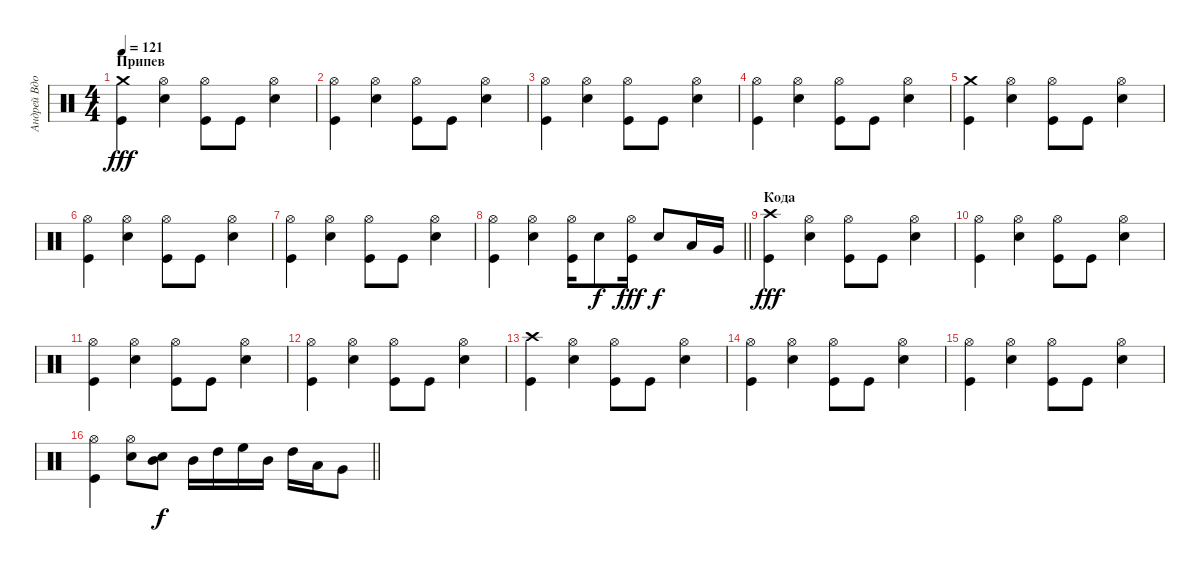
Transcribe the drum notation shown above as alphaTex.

\track ("Андрей Вдовиченко" "Андрей Вдо") {instrument percussion}
\staff {score}
\articulation defaults
\ts (4 4)
\section ("" "Припев")
\tempo 121
\clef neutral
\ks c
("Crash medium (hit)" "Kick (hit)").4{dy fff} ("Hi-Hat (open)" "Electric Snare (hit)").4 ("Hi-Hat (open)" "Kick (hit)").8 "Kick (hit)".8 ("Hi-Hat (open)" "Electric Snare (hit)").4 |
("Hi-Hat (open)" "Kick (hit)").4 ("Hi-Hat (open)" "Electric Snare (hit)").4 ("Hi-Hat (open)" "Kick (hit)").8 "Kick (hit)".8 ("Hi-Hat (open)" "Electric Snare (hit)").4 |
("Hi-Hat (open)" "Kick (hit)").4 ("Hi-Hat (open)" "Electric Snare (hit)").4 ("Hi-Hat (open)" "Kick (hit)").8 "Kick (hit)".8 ("Hi-Hat (open)" "Electric Snare (hit)").4 |
("Hi-Hat (open)" "Kick (hit)").4 ("Hi-Hat (open)" "Electric Snare (hit)").4 ("Hi-Hat (open)" "Kick (hit)").8 "Kick (hit)".8 ("Hi-Hat (open)" "Electric Snare (hit)").4 |
("Crash medium (hit)" "Kick (hit)").4 ("Hi-Hat (open)" "Electric Snare (hit)").4 ("Hi-Hat (open)" "Kick (hit)").8 "Kick (hit)".8 ("Hi-Hat (open)" "Electric Snare (hit)").4 |
("Hi-Hat (open)" "Kick (hit)").4 ("Hi-Hat (open)" "Electric Snare (hit)").4 ("Hi-Hat (open)" "Kick (hit)").8 "Kick (hit)".8 ("Hi-Hat (open)" "Electric Snare (hit)").4 |
("Hi-Hat (open)" "Kick (hit)").4 ("Hi-Hat (open)" "Electric Snare (hit)").4 ("Hi-Hat (open)" "Kick (hit)").8 "Kick (hit)".8 ("Hi-Hat (open)" "Electric Snare (hit)").4 |
\barLineRight lightlight
("Hi-Hat (open)" "Kick (hit)").4 ("Hi-Hat (open)" "Electric Snare (hit)").4 ("Hi-Hat (open)" "Kick (hit)").16 "Electric Snare (hit)".8{dy f} ("Hi-Hat (open)" "Kick (hit)").16{dy fff} "Electric Snare (hit)".8{dy f} "Low Tom (hit)".16 "Very Low Tom (hit)".16 |
\section ("" "Кода")
("Crash high (hit)" "Kick (hit)").4{dy fff} ("Hi-Hat (open)" "Electric Snare (hit)").4 ("Hi-Hat (open)" "Kick (hit)").8 "Kick (hit)".8 ("Hi-Hat (open)" "Electric Snare (hit)").4 |
("Hi-Hat (open)" "Kick (hit)").4 ("Hi-Hat (open)" "Electric Snare (hit)").4 ("Hi-Hat (open)" "Kick (hit)").8 "Kick (hit)".8 ("Hi-Hat (open)" "Electric Snare (hit)").4 |
("Hi-Hat (open)" "Kick (hit)").4 ("Hi-Hat (open)" "Electric Snare (hit)").4 ("Hi-Hat (open)" "Kick (hit)").8 "Kick (hit)".8 ("Hi-Hat (open)" "Electric Snare (hit)").4 |
("Hi-Hat (open)" "Kick (hit)").4 ("Hi-Hat (open)" "Electric Snare (hit)").4 ("Hi-Hat (open)" "Kick (hit)").8 "Kick (hit)".8 ("Hi-Hat (open)" "Electric Snare (hit)").4 |
("Crash high (hit)" "Kick (hit)").4 ("Hi-Hat (open)" "Electric Snare (hit)").4 ("Hi-Hat (open)" "Kick (hit)").8 "Kick (hit)".8 ("Hi-Hat (open)" "Electric Snare (hit)").4 |
("Hi-Hat (open)" "Kick (hit)").4 ("Hi-Hat (open)" "Electric Snare (hit)").4 ("Hi-Hat (open)" "Kick (hit)").8 "Kick (hit)".8 ("Hi-Hat (open)" "Electric Snare (hit)").4 |
("Hi-Hat (open)" "Kick (hit)").4 ("Hi-Hat (open)" "Electric Snare (hit)").4 ("Hi-Hat (open)" "Kick (hit)").8 "Kick (hit)".8 ("Hi-Hat (open)" "Electric Snare (hit)").4 |
\barLineRight lightlight
("Hi-Hat (open)" "Kick (hit)").4 ("Hi-Hat (open)" "Electric Snare (hit)").8 ("Mid Tom (hit)" "Snare (hit) 2").8{dy f} "Mid Tom (hit)".16 "High Tom (hit)".16 "High Floor Tom (hit)".16 "Mid Tom (hit)".16 "High Tom (hit)".16 "Low Tom (hit)".16 "Very Low Tom (hit)".8
